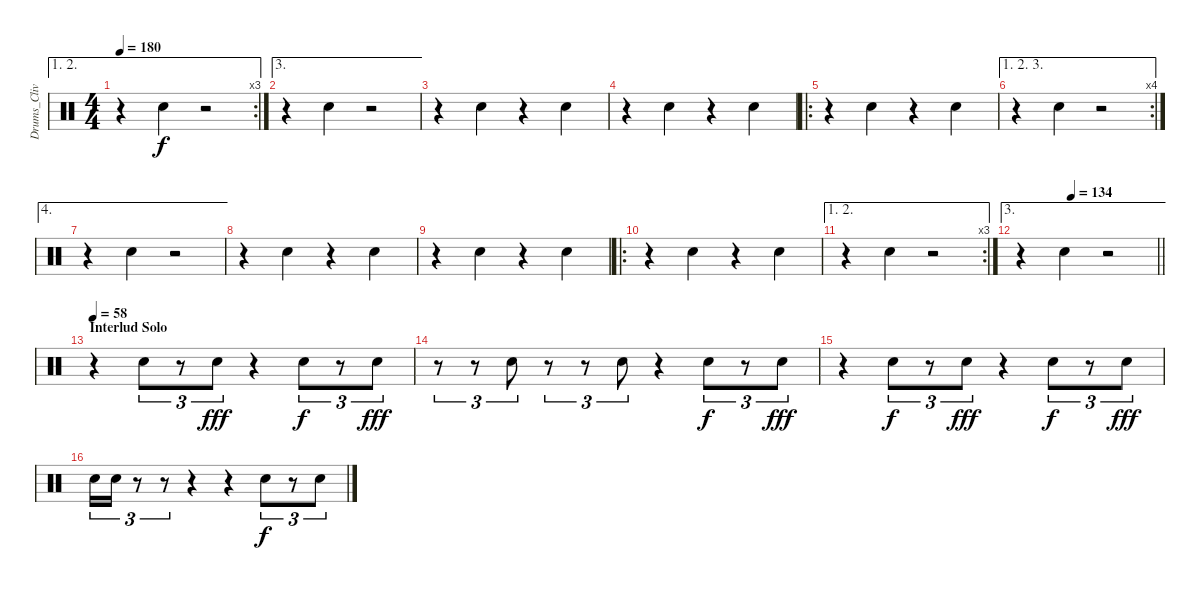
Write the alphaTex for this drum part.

\track ("Drums_CliveBurr" "Drums_Cliv") {instrument percussion}
\staff {score}
\articulation defaults
\ae (1 2)
\rc 3
\ts (4 4)
\tempo 180
\clef neutral
\ks c
r.4{dy f} "Snare (hit) 2".4 r.2 |
\ae 3
r.4 "Snare (hit) 2".4 r.2 |
r.4 "Snare (hit) 2".4 r.4 "Snare (hit) 2".4 |
r.4 "Snare (hit) 2".4 r.4 "Snare (hit) 2".4 |
\ro
r.4 "Snare (hit) 2".4 r.4 "Snare (hit) 2".4 |
\ae (1 2 3)
\rc 4
r.4 "Snare (hit) 2".4 r.2 |
\ae 4
r.4 "Snare (hit) 2".4 r.2 |
r.4 "Snare (hit) 2".4 r.4 "Snare (hit) 2".4 |
r.4 "Snare (hit) 2".4 r.4 "Snare (hit) 2".4 |
\ro
r.4 "Snare (hit) 2".4 r.4 "Snare (hit) 2".4 |
\ae (1 2)
\rc 3
r.4 "Snare (hit) 2".4 r.2 |
\ae 3
\tempo (134 0.375)
\barLineRight lightlight
r.4 "Snare (hit) 2".4 r.2 |
\section ("" "Interlud Solo")
\tempo 58
r.4 "Snare (hit) 2".8{tu (3 2)} r.8{tu (3 2)} "Snare (hit) 2".8{tu (3 2) dy fff} r.4 "Snare (hit) 2".8{tu (3 2) dy f} r.8{tu (3 2)} "Snare (hit) 2".8{tu (3 2) dy fff} |
r.8{tu (3 2)} r.8{tu (3 2)} "Snare (hit) 2".8{tu (3 2)} r.8{tu (3 2)} r.8{tu (3 2)} "Snare (hit) 2".8{tu (3 2)} r.4 "Snare (hit) 2".8{tu (3 2) dy f} r.8{tu (3 2)} "Snare (hit) 2".8{tu (3 2) dy fff} |
r.4 "Snare (hit) 2".8{tu (3 2) dy f} r.8{tu (3 2)} "Snare (hit) 2".8{tu (3 2) dy fff} r.4 "Snare (hit) 2".8{tu (3 2) dy f} r.8{tu (3 2)} "Snare (hit) 2".8{tu (3 2) dy fff} |
"Snare (hit) 2".16{tu (3 2)} "Snare (hit) 2".16{tu (3 2)} r.8{tu (3 2)} r.8{tu (3 2)} r.4 r.4 "Snare (hit) 2".8{tu (3 2) dy f} r.8{tu (3 2)} "Snare (hit) 2".8{tu (3 2)}
